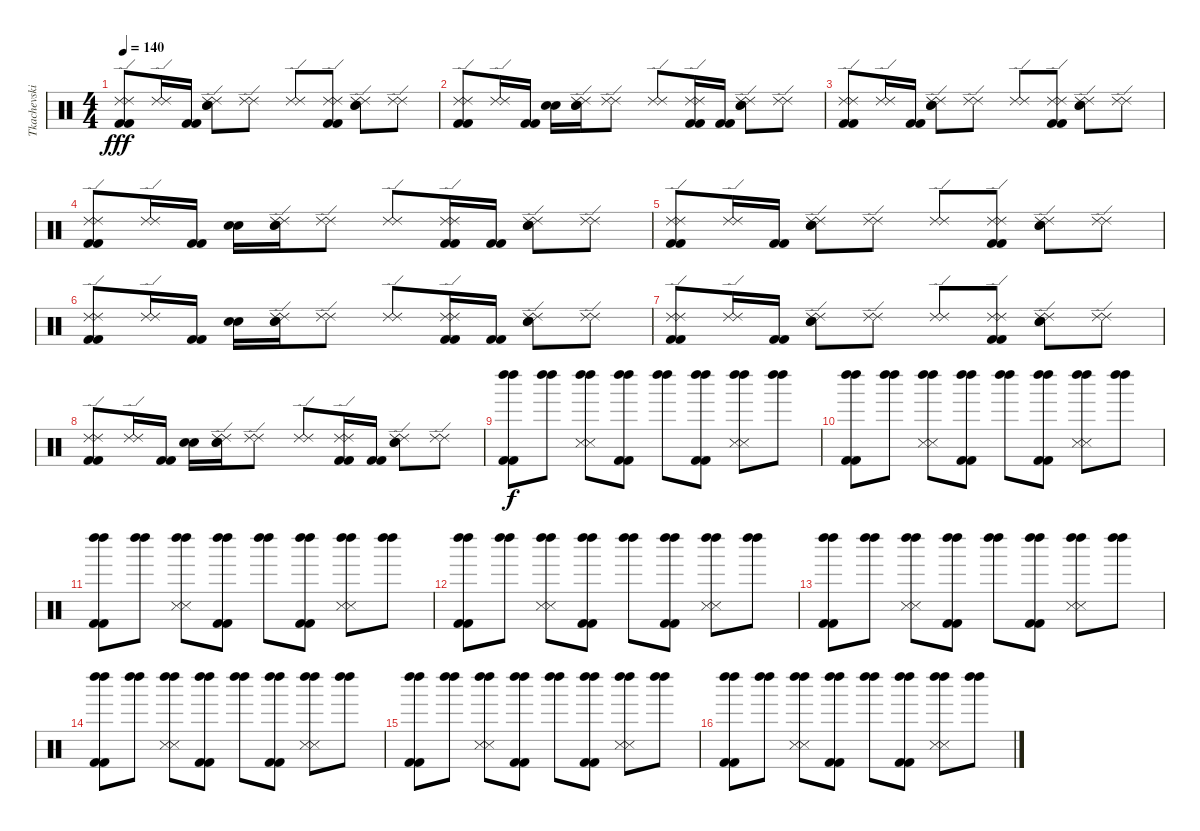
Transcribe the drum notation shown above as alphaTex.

\track ("Tkachevskiy A" "Tkachevski") {instrument percussion}
\staff {score}
\articulation defaults
\ts (4 4)
\tempo 140
\clef neutral
\ks c
("Kick (hit) 2" "Ride (edge) 2" "Kick (hit) 2" "Ride (edge) 2").8{dy fff} ("Ride (edge) 2" "Ride (edge) 2").16 ("Kick (hit) 2" "Kick (hit) 2").16 ("Snare (hit) 2" "Ride (edge) 2" "Snare (hit) 2" "Ride (edge) 2").8 ("Ride (edge) 2" "Ride (edge) 2").8 ("Ride (edge) 2" "Ride (edge) 2").8 ("Kick (hit) 2" "Ride (edge) 2" "Kick (hit) 2" "Ride (edge) 2").8 ("Snare (hit) 2" "Ride (edge) 2" "Snare (hit) 2" "Ride (edge) 2").8 ("Ride (edge) 2" "Ride (edge) 2").8 |
("Kick (hit) 2" "Ride (edge) 2" "Kick (hit) 2" "Ride (edge) 2").8 ("Ride (edge) 2" "Ride (edge) 2").16 ("Kick (hit) 2" "Kick (hit) 2").16 ("Snare (hit) 2" "Snare (hit) 2").16 ("Snare (hit) 2" "Ride (edge) 2" "Snare (hit) 2" "Ride (edge) 2").16 ("Ride (edge) 2" "Ride (edge) 2").8 ("Ride (edge) 2" "Ride (edge) 2").8 ("Kick (hit) 2" "Ride (edge) 2" "Kick (hit) 2" "Ride (edge) 2").16 ("Kick (hit) 2" "Kick (hit) 2").16 ("Snare (hit) 2" "Ride (edge) 2" "Snare (hit) 2" "Ride (edge) 2").8 ("Ride (edge) 2" "Ride (edge) 2").8 |
("Kick (hit) 2" "Ride (edge) 2" "Kick (hit) 2" "Ride (edge) 2").8 ("Ride (edge) 2" "Ride (edge) 2").16 ("Kick (hit) 2" "Kick (hit) 2").16 ("Snare (hit) 2" "Ride (edge) 2" "Snare (hit) 2" "Ride (edge) 2").8 ("Ride (edge) 2" "Ride (edge) 2").8 ("Ride (edge) 2" "Ride (edge) 2").8 ("Kick (hit) 2" "Ride (edge) 2" "Kick (hit) 2" "Ride (edge) 2").8 ("Snare (hit) 2" "Ride (edge) 2" "Snare (hit) 2" "Ride (edge) 2").8 ("Ride (edge) 2" "Ride (edge) 2").8 |
("Kick (hit) 2" "Ride (edge) 2" "Kick (hit) 2" "Ride (edge) 2").8 ("Ride (edge) 2" "Ride (edge) 2").16 ("Kick (hit) 2" "Kick (hit) 2").16 ("Snare (hit) 2" "Snare (hit) 2").16 ("Snare (hit) 2" "Ride (edge) 2" "Snare (hit) 2" "Ride (edge) 2").16 ("Ride (edge) 2" "Ride (edge) 2").8 ("Ride (edge) 2" "Ride (edge) 2").8 ("Kick (hit) 2" "Ride (edge) 2" "Kick (hit) 2" "Ride (edge) 2").16 ("Kick (hit) 2" "Kick (hit) 2").16 ("Snare (hit) 2" "Ride (edge) 2" "Snare (hit) 2" "Ride (edge) 2").8 ("Ride (edge) 2" "Ride (edge) 2").8 |
("Kick (hit) 2" "Ride (edge) 2" "Kick (hit) 2" "Ride (edge) 2").8 ("Ride (edge) 2" "Ride (edge) 2").16 ("Kick (hit) 2" "Kick (hit) 2").16 ("Snare (hit) 2" "Ride (edge) 2" "Snare (hit) 2" "Ride (edge) 2").8 ("Ride (edge) 2" "Ride (edge) 2").8 ("Ride (edge) 2" "Ride (edge) 2").8 ("Kick (hit) 2" "Ride (edge) 2" "Kick (hit) 2" "Ride (edge) 2").8 ("Snare (hit) 2" "Ride (edge) 2" "Snare (hit) 2" "Ride (edge) 2").8 ("Ride (edge) 2" "Ride (edge) 2").8 |
("Kick (hit) 2" "Ride (edge) 2" "Kick (hit) 2" "Ride (edge) 2").8 ("Ride (edge) 2" "Ride (edge) 2").16 ("Kick (hit) 2" "Kick (hit) 2").16 ("Snare (hit) 2" "Snare (hit) 2").16 ("Snare (hit) 2" "Ride (edge) 2" "Snare (hit) 2" "Ride (edge) 2").16 ("Ride (edge) 2" "Ride (edge) 2").8 ("Ride (edge) 2" "Ride (edge) 2").8 ("Kick (hit) 2" "Ride (edge) 2" "Kick (hit) 2" "Ride (edge) 2").16 ("Kick (hit) 2" "Kick (hit) 2").16 ("Snare (hit) 2" "Ride (edge) 2" "Snare (hit) 2" "Ride (edge) 2").8 ("Ride (edge) 2" "Ride (edge) 2").8 |
("Kick (hit) 2" "Ride (edge) 2" "Kick (hit) 2" "Ride (edge) 2").8 ("Ride (edge) 2" "Ride (edge) 2").16 ("Kick (hit) 2" "Kick (hit) 2").16 ("Snare (hit) 2" "Ride (edge) 2" "Snare (hit) 2" "Ride (edge) 2").8 ("Ride (edge) 2" "Ride (edge) 2").8 ("Ride (edge) 2" "Ride (edge) 2").8 ("Kick (hit) 2" "Ride (edge) 2" "Kick (hit) 2" "Ride (edge) 2").8 ("Snare (hit) 2" "Ride (edge) 2" "Snare (hit) 2" "Ride (edge) 2").8 ("Ride (edge) 2" "Ride (edge) 2").8 |
("Kick (hit) 2" "Ride (edge) 2" "Kick (hit) 2" "Ride (edge) 2").8 ("Ride (edge) 2" "Ride (edge) 2").16 ("Kick (hit) 2" "Kick (hit) 2").16 ("Snare (hit) 2" "Snare (hit) 2").16 ("Snare (hit) 2" "Ride (edge) 2" "Snare (hit) 2" "Ride (edge) 2").16 ("Ride (edge) 2" "Ride (edge) 2").8 ("Ride (edge) 2" "Ride (edge) 2").8 ("Kick (hit) 2" "Ride (edge) 2" "Kick (hit) 2" "Ride (edge) 2").16 ("Kick (hit) 2" "Kick (hit) 2").16 ("Snare (hit) 2" "Ride (edge) 2" "Snare (hit) 2" "Ride (edge) 2").8 ("Ride (edge) 2" "Ride (edge) 2").8 |
("Kick (hit) 2" "Left Maraca (hit)" "Kick (hit) 2" "Left Maraca (hit)").8{dy f} ("Left Maraca (hit)" "Left Maraca (hit)").8 ("Snare (side stick) 3" "Left Maraca (hit)" "Snare (side stick) 3" "Left Maraca (hit)").8 ("Kick (hit) 2" "Left Maraca (hit)" "Kick (hit) 2" "Left Maraca (hit)").8 ("Left Maraca (hit)" "Left Maraca (hit)").8 ("Kick (hit) 2" "Left Maraca (hit)" "Kick (hit) 2" "Left Maraca (hit)").8 ("Snare (side stick) 3" "Left Maraca (hit)" "Snare (side stick) 3" "Left Maraca (hit)").8 ("Left Maraca (hit)" "Left Maraca (hit)").8 |
("Kick (hit) 2" "Left Maraca (hit)" "Kick (hit) 2" "Left Maraca (hit)").8 ("Left Maraca (hit)" "Left Maraca (hit)").8 ("Snare (side stick) 3" "Left Maraca (hit)" "Snare (side stick) 3" "Left Maraca (hit)").8 ("Kick (hit) 2" "Left Maraca (hit)" "Kick (hit) 2" "Left Maraca (hit)").8 ("Left Maraca (hit)" "Left Maraca (hit)").8 ("Kick (hit) 2" "Left Maraca (hit)" "Kick (hit) 2" "Left Maraca (hit)").8 ("Snare (side stick) 3" "Left Maraca (hit)" "Snare (side stick) 3" "Left Maraca (hit)").8 ("Left Maraca (hit)" "Left Maraca (hit)").8 |
("Kick (hit) 2" "Left Maraca (hit)" "Kick (hit) 2" "Left Maraca (hit)").8 ("Left Maraca (hit)" "Left Maraca (hit)").8 ("Snare (side stick) 3" "Left Maraca (hit)" "Snare (side stick) 3" "Left Maraca (hit)").8 ("Kick (hit) 2" "Left Maraca (hit)" "Kick (hit) 2" "Left Maraca (hit)").8 ("Left Maraca (hit)" "Left Maraca (hit)").8 ("Kick (hit) 2" "Left Maraca (hit)" "Kick (hit) 2" "Left Maraca (hit)").8 ("Snare (side stick) 3" "Left Maraca (hit)" "Snare (side stick) 3" "Left Maraca (hit)").8 ("Left Maraca (hit)" "Left Maraca (hit)").8 |
("Kick (hit) 2" "Left Maraca (hit)" "Kick (hit) 2" "Left Maraca (hit)").8 ("Left Maraca (hit)" "Left Maraca (hit)").8 ("Snare (side stick) 3" "Left Maraca (hit)" "Snare (side stick) 3" "Left Maraca (hit)").8 ("Kick (hit) 2" "Left Maraca (hit)" "Kick (hit) 2" "Left Maraca (hit)").8 ("Left Maraca (hit)" "Left Maraca (hit)").8 ("Kick (hit) 2" "Left Maraca (hit)" "Kick (hit) 2" "Left Maraca (hit)").8 ("Snare (side stick) 3" "Left Maraca (hit)" "Snare (side stick) 3" "Left Maraca (hit)").8 ("Left Maraca (hit)" "Left Maraca (hit)").8 |
("Kick (hit) 2" "Left Maraca (hit)" "Kick (hit) 2" "Left Maraca (hit)").8 ("Left Maraca (hit)" "Left Maraca (hit)").8 ("Snare (side stick) 3" "Left Maraca (hit)" "Snare (side stick) 3" "Left Maraca (hit)").8 ("Kick (hit) 2" "Left Maraca (hit)" "Kick (hit) 2" "Left Maraca (hit)").8 ("Left Maraca (hit)" "Left Maraca (hit)").8 ("Kick (hit) 2" "Left Maraca (hit)" "Kick (hit) 2" "Left Maraca (hit)").8 ("Snare (side stick) 3" "Left Maraca (hit)" "Snare (side stick) 3" "Left Maraca (hit)").8 ("Left Maraca (hit)" "Left Maraca (hit)").8 |
("Kick (hit) 2" "Left Maraca (hit)" "Kick (hit) 2" "Left Maraca (hit)").8 ("Left Maraca (hit)" "Left Maraca (hit)").8 ("Snare (side stick) 3" "Left Maraca (hit)" "Snare (side stick) 3" "Left Maraca (hit)").8 ("Kick (hit) 2" "Left Maraca (hit)" "Kick (hit) 2" "Left Maraca (hit)").8 ("Left Maraca (hit)" "Left Maraca (hit)").8 ("Kick (hit) 2" "Left Maraca (hit)" "Kick (hit) 2" "Left Maraca (hit)").8 ("Snare (side stick) 3" "Left Maraca (hit)" "Snare (side stick) 3" "Left Maraca (hit)").8 ("Left Maraca (hit)" "Left Maraca (hit)").8 |
("Kick (hit) 2" "Left Maraca (hit)" "Kick (hit) 2" "Left Maraca (hit)").8 ("Left Maraca (hit)" "Left Maraca (hit)").8 ("Snare (side stick) 3" "Left Maraca (hit)" "Snare (side stick) 3" "Left Maraca (hit)").8 ("Kick (hit) 2" "Left Maraca (hit)" "Kick (hit) 2" "Left Maraca (hit)").8 ("Left Maraca (hit)" "Left Maraca (hit)").8 ("Kick (hit) 2" "Left Maraca (hit)" "Kick (hit) 2" "Left Maraca (hit)").8 ("Snare (side stick) 3" "Left Maraca (hit)" "Snare (side stick) 3" "Left Maraca (hit)").8 ("Left Maraca (hit)" "Left Maraca (hit)").8 |
("Kick (hit) 2" "Left Maraca (hit)" "Kick (hit) 2" "Left Maraca (hit)").8 ("Left Maraca (hit)" "Left Maraca (hit)").8 ("Snare (side stick) 3" "Left Maraca (hit)" "Snare (side stick) 3" "Left Maraca (hit)").8 ("Kick (hit) 2" "Left Maraca (hit)" "Kick (hit) 2" "Left Maraca (hit)").8 ("Left Maraca (hit)" "Left Maraca (hit)").8 ("Kick (hit) 2" "Left Maraca (hit)" "Kick (hit) 2" "Left Maraca (hit)").8 ("Snare (side stick) 3" "Left Maraca (hit)" "Snare (side stick) 3" "Left Maraca (hit)").8 ("Left Maraca (hit)" "Left Maraca (hit)").8
